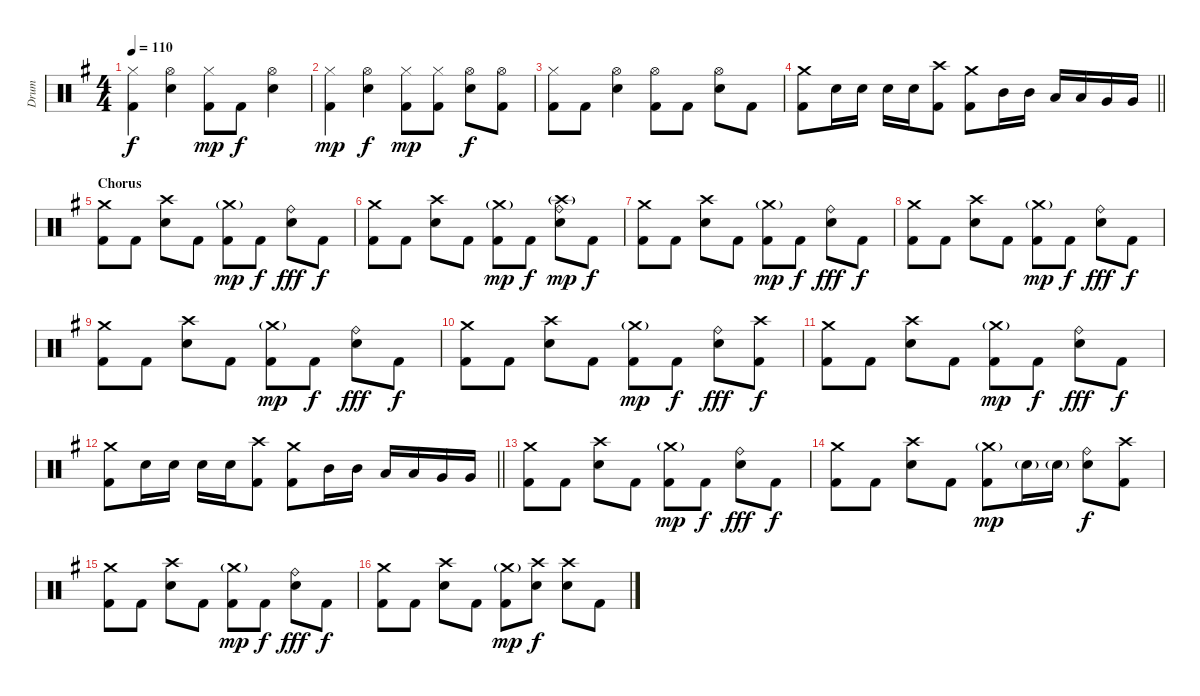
\track ("Drum" "Drum") {instrument percussion}
\staff {score}
\articulation defaults
\ts (4 4)
\tempo 110
\clef neutral
\ks g
("Hi-Hat (closed)" "Kick (hit) 2").4{dy f} ("Hi-Hat (open)" "Electric Snare (hit)").4 ("Hi-Hat (closed)" "Kick (hit) 2").8{dy mp} "Kick (hit) 2".8{dy f} ("Hi-Hat (open)" "Electric Snare (hit)").4 |
("Hi-Hat (closed)" "Kick (hit) 2").4{dy mp} ("Hi-Hat (open)" "Electric Snare (hit)").4{dy f} ("Hi-Hat (closed)" "Kick (hit) 2").8{dy mp} ("Hi-Hat (closed)" "Kick (hit) 2").8 ("Hi-Hat (open)" "Electric Snare (hit)").8{dy f} ("Hi-Hat (open)" "Kick (hit) 2").8 |
("Hi-Hat (closed)" "Kick (hit) 2").8 "Kick (hit) 2".8 ("Hi-Hat (open)" "Electric Snare (hit)").4 ("Hi-Hat (open)" "Kick (hit) 2").8 "Kick (hit) 2".8 ("Hi-Hat (open)" "Electric Snare (hit)").8 "Kick (hit) 2".8 |
\barLineRight lightlight
("Crash medium (hit)" "Kick (hit) 2").8 "Electric Snare (hit)".16 "Electric Snare (hit)".16 "Electric Snare (hit)".16 "Electric Snare (hit)".16 ("Crash high (hit)" "Kick (hit) 2").8 ("Crash medium (hit)" "Kick (hit) 2").8 "Mid Tom (hit)".16 "Mid Tom (hit)".16 "Low Tom (hit)".16 "Low Tom (hit)".16 "Very Low Tom (hit)".16 "Very Low Tom (hit)".16 |
\section ("" "Chorus")
("Crash medium (hit)" "Kick (hit) 2").8 "Kick (hit) 2".8 ("Crash high (hit)" "Electric Snare (hit)").8 "Kick (hit) 2".8 ("Crash medium (hit)"{g} "Kick (hit) 2").8{dy mp} "Kick (hit) 2".8{dy f} ("Ride (bell)" "Electric Snare (hit)").8{dy fff} "Kick (hit) 2".8{dy f} |
("Crash medium (hit)" "Kick (hit) 2").8 "Kick (hit) 2".8 ("Crash high (hit)" "Electric Snare (hit)").8 "Kick (hit) 2".8 ("Crash medium (hit)"{g} "Kick (hit) 2").8{dy mp} "Kick (hit) 2".8{dy f} ("Crash high (hit)"{g} "Ride (bell)" "Electric Snare (hit)").8{dy mp} "Kick (hit) 2".8{dy f} |
("Crash medium (hit)" "Kick (hit) 2").8 "Kick (hit) 2".8 ("Crash high (hit)" "Electric Snare (hit)").8 "Kick (hit) 2".8 ("Crash medium (hit)"{g} "Kick (hit) 2").8{dy mp} "Kick (hit) 2".8{dy f} ("Ride (bell)" "Electric Snare (hit)").8{dy fff} "Kick (hit) 2".8{dy f} |
("Crash medium (hit)" "Kick (hit) 2").8 "Kick (hit) 2".8 ("Crash high (hit)" "Electric Snare (hit)").8 "Kick (hit) 2".8 ("Crash medium (hit)"{g} "Kick (hit) 2").8{dy mp} "Kick (hit) 2".8{dy f} ("Ride (bell)" "Electric Snare (hit)").8{dy fff} "Kick (hit) 2".8{dy f} |
("Crash medium (hit)" "Kick (hit) 2").8 "Kick (hit) 2".8 ("Crash high (hit)" "Electric Snare (hit)").8 "Kick (hit) 2".8 ("Crash medium (hit)"{g} "Kick (hit) 2").8{dy mp} "Kick (hit) 2".8{dy f} ("Ride (bell)" "Electric Snare (hit)").8{dy fff} "Kick (hit) 2".8{dy f} |
("Crash medium (hit)" "Kick (hit) 2").8 "Kick (hit) 2".8 ("Crash high (hit)" "Electric Snare (hit)").8 "Kick (hit) 2".8 ("Crash medium (hit)"{g} "Kick (hit) 2").8{dy mp} "Kick (hit) 2".8{dy f} ("Ride (bell)" "Electric Snare (hit)").8{dy fff} ("Crash high (hit)" "Kick (hit) 2").8{dy f} |
("Crash medium (hit)" "Kick (hit) 2").8 "Kick (hit) 2".8 ("Crash high (hit)" "Electric Snare (hit)").8 "Kick (hit) 2".8 ("Crash medium (hit)"{g} "Kick (hit) 2").8{dy mp} "Kick (hit) 2".8{dy f} ("Ride (bell)" "Electric Snare (hit)").8{dy fff} "Kick (hit) 2".8{dy f} |
\barLineRight lightlight
("Crash medium (hit)" "Kick (hit) 2").8 "Electric Snare (hit)".16 "Electric Snare (hit)".16 "Electric Snare (hit)".16 "Electric Snare (hit)".16 ("Crash high (hit)" "Kick (hit) 2").8 ("Crash medium (hit)" "Kick (hit) 2").8 "Mid Tom (hit)".16 "Mid Tom (hit)".16 "Low Tom (hit)".16 "Low Tom (hit)".16 "Very Low Tom (hit)".16 "Very Low Tom (hit)".16 |
("Crash medium (hit)" "Kick (hit) 2").8 "Kick (hit) 2".8 ("Crash high (hit)" "Electric Snare (hit)").8 "Kick (hit) 2".8 ("Crash medium (hit)"{g} "Kick (hit) 2").8{dy mp} "Kick (hit) 2".8{dy f} ("Ride (bell)" "Electric Snare (hit)").8{dy fff} "Kick (hit) 2".8{dy f} |
("Crash medium (hit)" "Kick (hit) 2").8 "Kick (hit) 2".8 ("Crash high (hit)" "Electric Snare (hit)").8 "Kick (hit) 2".8 ("Crash medium (hit)"{g} "Kick (hit) 2").8{dy mp} "Electric Snare (hit)"{g}.16 "Electric Snare (hit)"{g}.16 ("Ride (bell)" "Electric Snare (hit)").8{dy f} ("Crash high (hit)" "Kick (hit) 2").8 |
("Crash medium (hit)" "Kick (hit) 2").8 "Kick (hit) 2".8 ("Crash high (hit)" "Electric Snare (hit)").8 "Kick (hit) 2".8 ("Crash medium (hit)"{g} "Kick (hit) 2").8{dy mp} "Kick (hit) 2".8{dy f} ("Ride (bell)" "Electric Snare (hit)").8{dy fff} "Kick (hit) 2".8{dy f} |
("Crash medium (hit)" "Kick (hit) 2").8 "Kick (hit) 2".8 ("Crash high (hit)" "Electric Snare (hit)").8 "Kick (hit) 2".8 ("Crash medium (hit)"{g} "Kick (hit) 2").8{dy mp} ("Crash high (hit)" "Electric Snare (hit)").8{dy f} ("Crash high (hit)" "Electric Snare (hit)").8 "Kick (hit) 2".8
